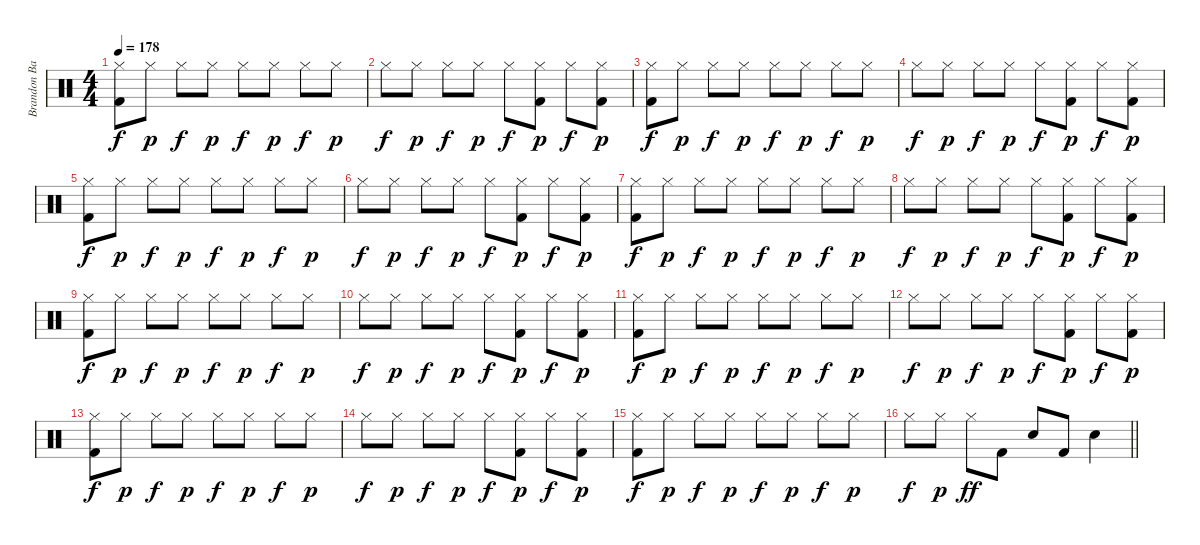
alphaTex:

\track ("Brandon Barnes - Drums" "Brandon Ba") {instrument percussion}
\staff {score}
\articulation defaults
\ts (4 4)
\tempo 178
\clef neutral
\ks c
("Hi-Hat (closed)" "Kick (hit) 2").8{dy f} "Hi-Hat (closed)".8{dy p} "Hi-Hat (closed)".8{dy f} "Hi-Hat (closed)".8{dy p} "Hi-Hat (closed)".8{dy f} "Hi-Hat (closed)".8{dy p} "Hi-Hat (closed)".8{dy f} "Hi-Hat (closed)".8{dy p} |
"Hi-Hat (closed)".8{dy f} "Hi-Hat (closed)".8{dy p} "Hi-Hat (closed)".8{dy f} "Hi-Hat (closed)".8{dy p} "Hi-Hat (closed)".8{dy f} ("Hi-Hat (closed)" "Kick (hit) 2").8{dy p} "Hi-Hat (closed)".8{dy f} ("Hi-Hat (closed)" "Kick (hit) 2").8{dy p} |
("Hi-Hat (closed)" "Kick (hit) 2").8{dy f} "Hi-Hat (closed)".8{dy p} "Hi-Hat (closed)".8{dy f} "Hi-Hat (closed)".8{dy p} "Hi-Hat (closed)".8{dy f} "Hi-Hat (closed)".8{dy p} "Hi-Hat (closed)".8{dy f} "Hi-Hat (closed)".8{dy p} |
"Hi-Hat (closed)".8{dy f} "Hi-Hat (closed)".8{dy p} "Hi-Hat (closed)".8{dy f} "Hi-Hat (closed)".8{dy p} "Hi-Hat (closed)".8{dy f} ("Hi-Hat (closed)" "Kick (hit) 2").8{dy p} "Hi-Hat (closed)".8{dy f} ("Hi-Hat (closed)" "Kick (hit) 2").8{dy p} |
("Hi-Hat (closed)" "Kick (hit) 2").8{dy f} "Hi-Hat (closed)".8{dy p} "Hi-Hat (closed)".8{dy f} "Hi-Hat (closed)".8{dy p} "Hi-Hat (closed)".8{dy f} "Hi-Hat (closed)".8{dy p} "Hi-Hat (closed)".8{dy f} "Hi-Hat (closed)".8{dy p} |
"Hi-Hat (closed)".8{dy f} "Hi-Hat (closed)".8{dy p} "Hi-Hat (closed)".8{dy f} "Hi-Hat (closed)".8{dy p} "Hi-Hat (closed)".8{dy f} ("Hi-Hat (closed)" "Kick (hit) 2").8{dy p} "Hi-Hat (closed)".8{dy f} ("Hi-Hat (closed)" "Kick (hit) 2").8{dy p} |
("Hi-Hat (closed)" "Kick (hit) 2").8{dy f} "Hi-Hat (closed)".8{dy p} "Hi-Hat (closed)".8{dy f} "Hi-Hat (closed)".8{dy p} "Hi-Hat (closed)".8{dy f} "Hi-Hat (closed)".8{dy p} "Hi-Hat (closed)".8{dy f} "Hi-Hat (closed)".8{dy p} |
"Hi-Hat (closed)".8{dy f} "Hi-Hat (closed)".8{dy p} "Hi-Hat (closed)".8{dy f} "Hi-Hat (closed)".8{dy p} "Hi-Hat (closed)".8{dy f} ("Hi-Hat (closed)" "Kick (hit) 2").8{dy p} "Hi-Hat (closed)".8{dy f} ("Hi-Hat (closed)" "Kick (hit) 2").8{dy p} |
("Hi-Hat (closed)" "Kick (hit) 2").8{dy f} "Hi-Hat (closed)".8{dy p} "Hi-Hat (closed)".8{dy f} "Hi-Hat (closed)".8{dy p} "Hi-Hat (closed)".8{dy f} "Hi-Hat (closed)".8{dy p} "Hi-Hat (closed)".8{dy f} "Hi-Hat (closed)".8{dy p} |
"Hi-Hat (closed)".8{dy f} "Hi-Hat (closed)".8{dy p} "Hi-Hat (closed)".8{dy f} "Hi-Hat (closed)".8{dy p} "Hi-Hat (closed)".8{dy f} ("Hi-Hat (closed)" "Kick (hit) 2").8{dy p} "Hi-Hat (closed)".8{dy f} ("Hi-Hat (closed)" "Kick (hit) 2").8{dy p} |
("Hi-Hat (closed)" "Kick (hit) 2").8{dy f} "Hi-Hat (closed)".8{dy p} "Hi-Hat (closed)".8{dy f} "Hi-Hat (closed)".8{dy p} "Hi-Hat (closed)".8{dy f} "Hi-Hat (closed)".8{dy p} "Hi-Hat (closed)".8{dy f} "Hi-Hat (closed)".8{dy p} |
"Hi-Hat (closed)".8{dy f} "Hi-Hat (closed)".8{dy p} "Hi-Hat (closed)".8{dy f} "Hi-Hat (closed)".8{dy p} "Hi-Hat (closed)".8{dy f} ("Hi-Hat (closed)" "Kick (hit) 2").8{dy p} "Hi-Hat (closed)".8{dy f} ("Hi-Hat (closed)" "Kick (hit) 2").8{dy p} |
("Hi-Hat (closed)" "Kick (hit) 2").8{dy f} "Hi-Hat (closed)".8{dy p} "Hi-Hat (closed)".8{dy f} "Hi-Hat (closed)".8{dy p} "Hi-Hat (closed)".8{dy f} "Hi-Hat (closed)".8{dy p} "Hi-Hat (closed)".8{dy f} "Hi-Hat (closed)".8{dy p} |
"Hi-Hat (closed)".8{dy f} "Hi-Hat (closed)".8{dy p} "Hi-Hat (closed)".8{dy f} "Hi-Hat (closed)".8{dy p} "Hi-Hat (closed)".8{dy f} ("Hi-Hat (closed)" "Kick (hit) 2").8{dy p} "Hi-Hat (closed)".8{dy f} ("Hi-Hat (closed)" "Kick (hit) 2").8{dy p} |
("Hi-Hat (closed)" "Kick (hit) 2").8{dy f} "Hi-Hat (closed)".8{dy p} "Hi-Hat (closed)".8{dy f} "Hi-Hat (closed)".8{dy p} "Hi-Hat (closed)".8{dy f} "Hi-Hat (closed)".8{dy p} "Hi-Hat (closed)".8{dy f} "Hi-Hat (closed)".8{dy p} |
\barLineRight lightlight "Hi-Hat (closed)".8{dy f} "Hi-Hat (closed)".8{dy p} "Hi-Hat (closed)".8{dy ff} "Kick (hit) 2".8 "Snare (hit) 2".8 "Kick (hit) 2".8 "Snare (hit) 2".4
